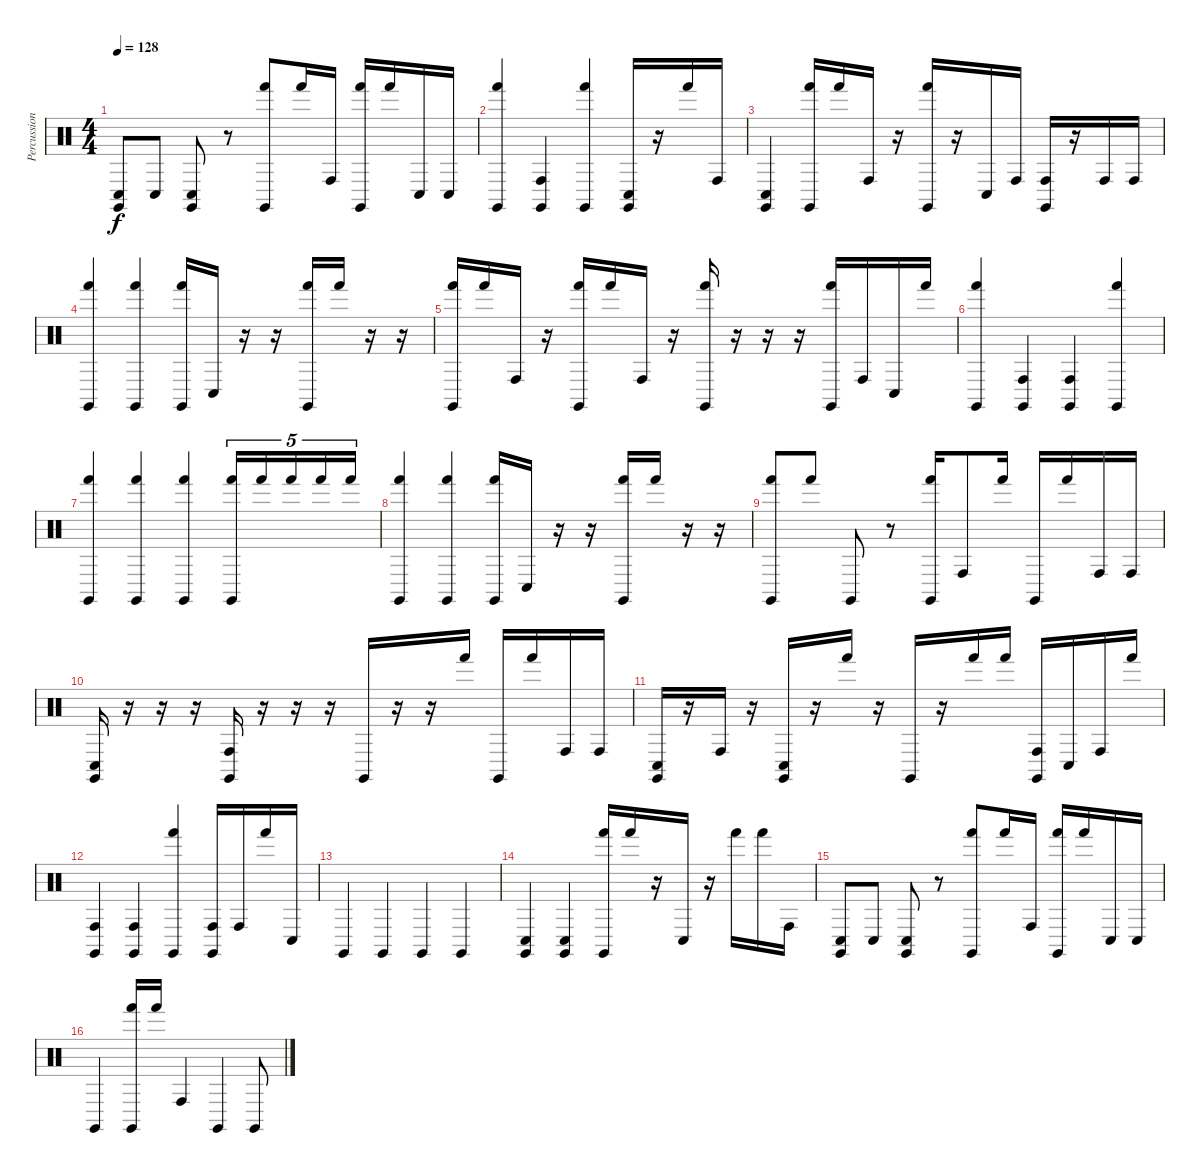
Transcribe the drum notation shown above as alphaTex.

\track ("Percussion" "Percussion") {instrument percussion}
\staff {score}
\articulation defaults
\ts (4 4)
\tempo 128
\clef neutral
\ks c
("Claves (hit)" "Conga low (hit)").8{dy f} "Conga low (hit)".8 ("Claves (hit)" "Conga low (hit)").8 r.8 ("Claves (hit)" "Hand (hit)").8 "Hand (hit)".16 "Conga high (hit)".16 ("Claves (hit)" "Hand (hit)").16 "Hand (hit)".16 "Conga low (hit)".16 "Conga low (hit)".16 |
("Claves (hit)" "Hand (hit)").4 ("Claves (hit)" "Conga high (hit)").4 ("Claves (hit)" "Hand (hit)").4 ("Claves (hit)" "Conga low (hit)").16 r.16 "Hand (hit)".16 "Conga high (hit)".16 |
("Claves (hit)" "Conga low (hit)").4 ("Claves (hit)" "Hand (hit)").16 "Hand (hit)".16 "Conga high (hit)".16 r.16 ("Claves (hit)" "Hand (hit)").16 r.16 "Conga low (hit)".16 "Conga high (hit)".16 ("Claves (hit)" "Conga high (hit)").16 r.16 "Conga high (hit)".16 "Conga high (hit)".16 |
("Claves (hit)" "Hand (hit)").4 ("Claves (hit)" "Hand (hit)").4 ("Claves (hit)" "Hand (hit)").16 "Conga low (hit)".16 r.16 r.16 ("Claves (hit)" "Hand (hit)").16 "Hand (hit)".16 r.16 r.16 |
("Claves (hit)" "Hand (hit)").16 "Hand (hit)".16 "Conga high (hit)".16 r.16 ("Claves (hit)" "Hand (hit)").16 "Hand (hit)".16 "Conga high (hit)".16 r.16 ("Claves (hit)" "Hand (hit)").16 r.16 r.16 r.16 ("Claves (hit)" "Hand (hit)").16 "Conga high (hit)".16 "Conga low (hit)".16 "Hand (hit)".16 |
("Claves (hit)" "Hand (hit)").4 ("Claves (hit)" "Conga high (hit)").4 ("Claves (hit)" "Conga high (hit)").4 ("Claves (hit)" "Hand (hit)").4 |
("Claves (hit)" "Hand (hit)").4 ("Claves (hit)" "Hand (hit)").4 ("Claves (hit)" "Hand (hit)").4 ("Claves (hit)" "Hand (hit)").16{tu (5 4)} "Hand (hit)".16{tu (5 4)} "Hand (hit)".16{tu (5 4)} "Hand (hit)".16{tu (5 4)} "Hand (hit)".16{tu (5 4)} |
("Claves (hit)" "Hand (hit)").4 ("Claves (hit)" "Hand (hit)").4 ("Claves (hit)" "Hand (hit)").16 "Conga low (hit)".16 r.16 r.16 ("Claves (hit)" "Hand (hit)").16 "Hand (hit)".16 r.16 r.16 |
("Claves (hit)" "Hand (hit)").8 "Hand (hit)".8 "Claves (hit)".8 r.8 ("Claves (hit)" "Hand (hit)").16 "Conga high (hit)".8 "Hand (hit)".16 "Claves (hit)".16 "Hand (hit)".16 "Conga high (hit)".16 "Conga high (hit)".16 |
("Claves (hit)" "Conga low (hit)").16 r.16 r.16 r.16 ("Claves (hit)" "Conga high (hit)").16 r.16 r.16 r.16 "Claves (hit)".16 r.16 r.16 "Hand (hit)".16 "Claves (hit)".16 "Hand (hit)".16 "Conga high (hit)".16 "Conga high (hit)".16 |
("Claves (hit)" "Conga low (hit)").16 r.16 "Conga high (hit)".16 r.16 ("Claves (hit)" "Conga low (hit)").16 r.16 "Hand (hit)".16 r.16 "Claves (hit)".16 r.16 "Hand (hit)".16 "Hand (hit)".16 ("Claves (hit)" "Conga high (hit)").16 "Conga low (hit)".16 "Conga high (hit)".16 "Hand (hit)".16 |
("Claves (hit)" "Conga high (hit)").4 ("Claves (hit)" "Conga high (hit)").4 ("Claves (hit)" "Hand (hit)").4 ("Claves (hit)" "Conga high (hit)").16 "Conga high (hit)".16 "Hand (hit)".16 "Conga low (hit)".16 |
"Claves (hit)".4 "Claves (hit)".4 "Claves (hit)".4 "Claves (hit)".4 |
("Claves (hit)" "Conga low (hit)").4 ("Claves (hit)" "Conga low (hit)").4 ("Claves (hit)" "Hand (hit)").16 "Hand (hit)".16 r.16 "Conga low (hit)".16 r.16 "Hand (hit)".16 "Hand (hit)".16 "Conga high (hit)".16 |
("Claves (hit)" "Conga low (hit)").8 "Conga low (hit)".8 ("Claves (hit)" "Conga low (hit)").8 r.8 ("Claves (hit)" "Hand (hit)").8 "Hand (hit)".16 "Conga high (hit)".16 ("Claves (hit)" "Hand (hit)").16 "Hand (hit)".16 "Conga low (hit)".16 "Conga low (hit)".16 |
"Claves (hit)".4 ("Claves (hit)" "Hand (hit)").16 "Hand (hit)".16 "Conga high (hit)".4 "Claves (hit)".4 "Claves (hit)".8
